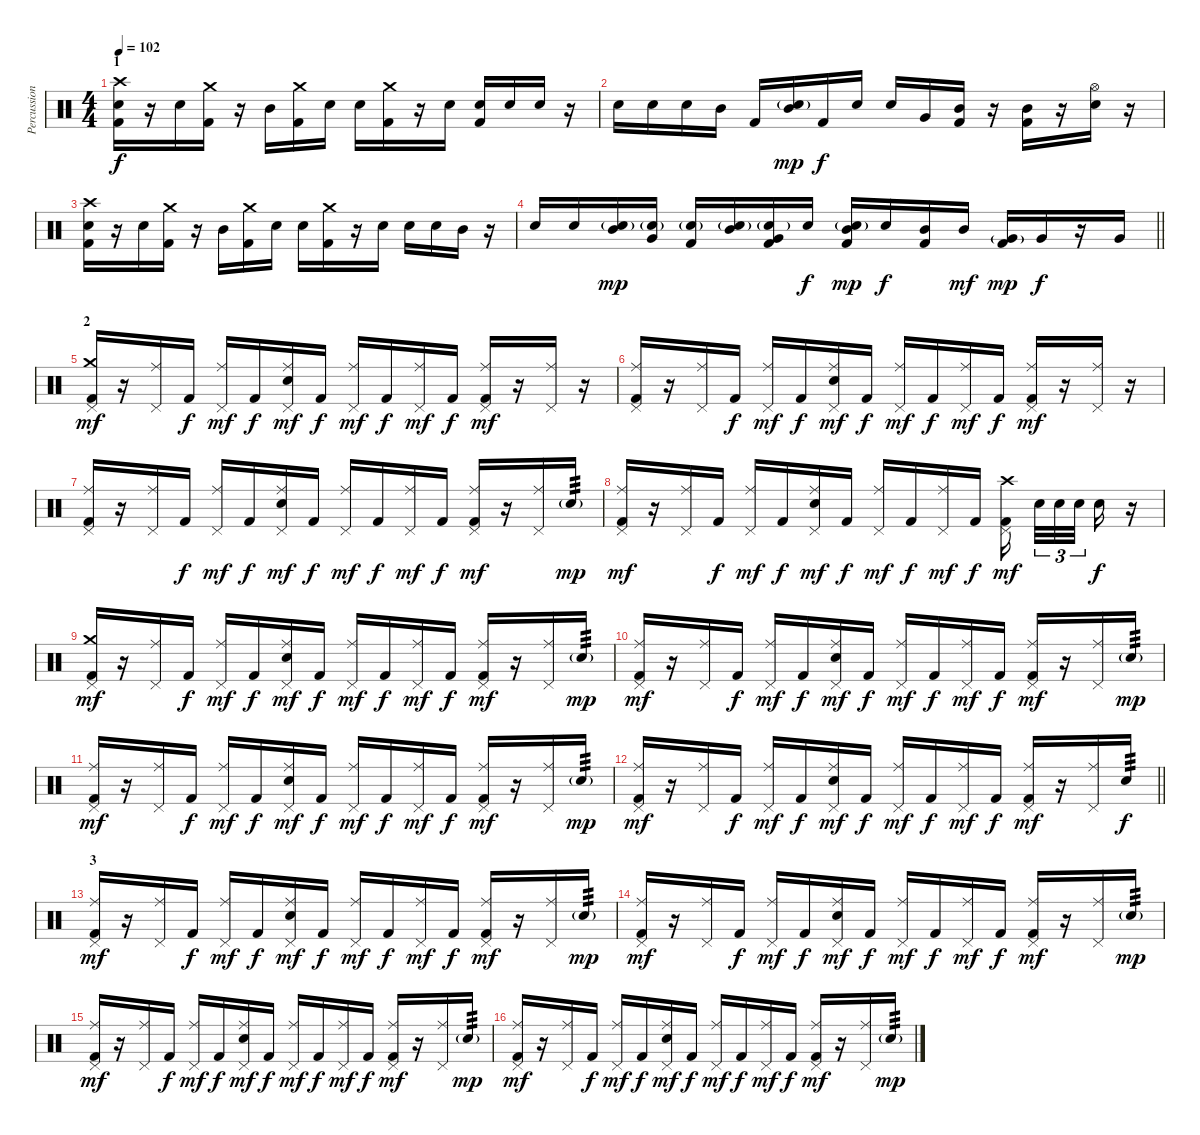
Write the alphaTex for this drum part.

\track ("Percussion" "Percussion") {instrument percussion}
\staff {score}
\articulation defaults
\ts (4 4)
\section ("" "1")
\tempo 102
\clef neutral
\ks c
("Crash high (hit)" "Snare (hit) 2" "Kick (hit) 2").16{dy f} r.16 "Snare (hit) 2".16 ("Crash medium (hit)" "Kick (hit) 2").16 r.16 "Mid Tom (hit)".16 ("Crash medium (hit)" "Kick (hit) 2").16 "Snare (hit) 2".16 "Snare (hit) 2".16 ("Crash medium (hit)" "Kick (hit) 2").16 r.16 "Snare (hit) 2".16 ("Snare (hit) 2" "Kick (hit) 2").16 "Snare (hit) 2".16 "Snare (hit) 2".16 r.16 |
"Snare (hit) 2".16 "Snare (hit) 2".16 "Snare (hit) 2".16 "Mid Tom (hit)".16 "Kick (hit) 2".16 ("Mid Tom (hit)" "Snare (hit) 2"{g}).16{dy mp} "Kick (hit) 2".16{dy f} "Snare (hit) 2".16 "Snare (hit) 2".16 "Very Low Tom (hit)".16 ("Mid Tom (hit)" "Kick (hit) 2").16 r.16 ("Mid Tom (hit)" "Kick (hit) 2").16 r.16 ("Hi-Hat (open)" "Snare (hit) 2").16 r.16 |
("Crash high (hit)" "Snare (hit) 2" "Kick (hit) 2").16 r.16 "Snare (hit) 2".16 ("Crash medium (hit)" "Kick (hit) 2").16 r.16 "Mid Tom (hit)".16 ("Crash medium (hit)" "Kick (hit) 2").16 "Snare (hit) 2".16 "Snare (hit) 2".16 ("Crash medium (hit)" "Kick (hit) 2").16 r.16 "Snare (hit) 2".16 "Snare (hit) 2".16 "Snare (hit) 2".16 "Mid Tom (hit)".16 r.16 |
\barLineRight lightlight "Snare (hit) 2".16 "Snare (hit) 2".16
("Mid Tom (hit)" "Snare (hit) 2"{g}).16{dy mp} ("Snare (hit) 2"{g} "Very Low Tom (hit)").16 ("Snare (hit) 2"{g} "Kick (hit) 2").16 ("Mid Tom (hit)" "Snare (hit) 2"{g}).16 ("Snare (hit) 2"{g} "Very Low Tom (hit)" "Kick (hit) 2").16 "Snare (hit) 2".16{dy f} ("Mid Tom (hit)" "Snare (hit) 2"{g} "Kick (hit) 2").16{dy mp} "Snare (hit) 2".16{dy f} ("Mid Tom (hit)" "Kick (hit) 2").16 "Mid Tom (hit)".16{dy mf} ("Very Low Tom (hit)"{g} "Kick (hit) 2").16{dy mp} "Very Low Tom (hit)".16{dy f} r.16 "Very Low Tom (hit)".16 |
\section ("" "2")
("Crash medium (hit)" "Pedal Hi-Hat (hit)" "Kick (hit) 2").16{dy mf} r.16 ("Ride (middle)" "Pedal Hi-Hat (hit)").16 "Kick (hit) 2".16{dy f} ("Ride (middle)" "Pedal Hi-Hat (hit)").16{dy mf} "Kick (hit) 2".16{dy f} ("Ride (middle)" "Pedal Hi-Hat (hit)" "Snare (hit) 2").16{dy mf} "Kick (hit) 2".16{dy f} ("Ride (middle)" "Pedal Hi-Hat (hit)").16{dy mf} "Kick (hit) 2".16{dy f} ("Ride (middle)" "Pedal Hi-Hat (hit)").16{dy mf} "Kick (hit) 2".16{dy f} ("Ride (middle)" "Pedal Hi-Hat (hit)" "Kick (hit) 2").16{dy mf} r.16 ("Ride (middle)" "Pedal Hi-Hat (hit)").16 r.16 |
("Ride (middle)" "Pedal Hi-Hat (hit)" "Kick (hit) 2").16 r.16 ("Ride (middle)" "Pedal Hi-Hat (hit)").16 "Kick (hit) 2".16{dy f} ("Ride (middle)" "Pedal Hi-Hat (hit)").16{dy mf} "Kick (hit) 2".16{dy f} ("Ride (middle)" "Pedal Hi-Hat (hit)" "Snare (hit) 2").16{dy mf} "Kick (hit) 2".16{dy f} ("Ride (middle)" "Pedal Hi-Hat (hit)").16{dy mf} "Kick (hit) 2".16{dy f} ("Ride (middle)" "Pedal Hi-Hat (hit)").16{dy mf} "Kick (hit) 2".16{dy f} ("Ride (middle)" "Pedal Hi-Hat (hit)" "Kick (hit) 2").16{dy mf} r.16 ("Ride (middle)" "Pedal Hi-Hat (hit)").16 r.16 |
("Ride (middle)" "Pedal Hi-Hat (hit)" "Kick (hit) 2").16 r.16 ("Ride (middle)" "Pedal Hi-Hat (hit)").16 "Kick (hit) 2".16{dy f} ("Ride (middle)" "Pedal Hi-Hat (hit)").16{dy mf} "Kick (hit) 2".16{dy f} ("Ride (middle)" "Pedal Hi-Hat (hit)" "Snare (hit) 2").16{dy mf} "Kick (hit) 2".16{dy f} ("Ride (middle)" "Pedal Hi-Hat (hit)").16{dy mf} "Kick (hit) 2".16{dy f} ("Ride (middle)" "Pedal Hi-Hat (hit)").16{dy mf} "Kick (hit) 2".16{dy f} ("Ride (middle)" "Pedal Hi-Hat (hit)" "Kick (hit) 2").16{dy mf} r.16 ("Ride (middle)" "Pedal Hi-Hat (hit)").16 "Snare (hit) 2"{g}.16{tp 3 dy mp} |
("Ride (middle)" "Pedal Hi-Hat (hit)" "Kick (hit) 2").16{dy mf} r.16 ("Ride (middle)" "Pedal Hi-Hat (hit)").16 "Kick (hit) 2".16{dy f} ("Ride (middle)" "Pedal Hi-Hat (hit)").16{dy mf} "Kick (hit) 2".16{dy f} ("Ride (middle)" "Pedal Hi-Hat (hit)" "Snare (hit) 2").16{dy mf} "Kick (hit) 2".16{dy f} ("Ride (middle)" "Pedal Hi-Hat (hit)").16{dy mf} "Kick (hit) 2".16{dy f} ("Ride (middle)" "Pedal Hi-Hat (hit)").16{dy mf} "Kick (hit) 2".16{dy f} ("Crash high (hit)" "Pedal Hi-Hat (hit)" "Kick (hit) 2").16{dy mf beam splitsecondary} "Snare (hit) 2".32{tu (3 2)} "Snare (hit) 2".32{tu (3 2)} "Snare (hit) 2".32{tu (3 2) beam splitsecondary} "Snare (hit) 2".16{dy f} r.16 |
("Crash medium (hit)" "Pedal Hi-Hat (hit)" "Kick (hit) 2").16{dy mf} r.16 ("Ride (middle)" "Pedal Hi-Hat (hit)").16 "Kick (hit) 2".16{dy f} ("Ride (middle)" "Pedal Hi-Hat (hit)").16{dy mf} "Kick (hit) 2".16{dy f} ("Ride (middle)" "Pedal Hi-Hat (hit)" "Snare (hit) 2").16{dy mf} "Kick (hit) 2".16{dy f} ("Ride (middle)" "Pedal Hi-Hat (hit)").16{dy mf} "Kick (hit) 2".16{dy f} ("Ride (middle)" "Pedal Hi-Hat (hit)").16{dy mf} "Kick (hit) 2".16{dy f} ("Ride (middle)" "Pedal Hi-Hat (hit)" "Kick (hit) 2").16{dy mf} r.16 ("Ride (middle)" "Pedal Hi-Hat (hit)").16 "Snare (hit) 2"{g}.16{tp 3 dy mp} |
("Ride (middle)" "Pedal Hi-Hat (hit)" "Kick (hit) 2").16{dy mf} r.16 ("Ride (middle)" "Pedal Hi-Hat (hit)").16 "Kick (hit) 2".16{dy f} ("Ride (middle)" "Pedal Hi-Hat (hit)").16{dy mf} "Kick (hit) 2".16{dy f} ("Ride (middle)" "Pedal Hi-Hat (hit)" "Snare (hit) 2").16{dy mf} "Kick (hit) 2".16{dy f} ("Ride (middle)" "Pedal Hi-Hat (hit)").16{dy mf} "Kick (hit) 2".16{dy f} ("Ride (middle)" "Pedal Hi-Hat (hit)").16{dy mf} "Kick (hit) 2".16{dy f} ("Ride (middle)" "Pedal Hi-Hat (hit)" "Kick (hit) 2").16{dy mf} r.16 ("Ride (middle)" "Pedal Hi-Hat (hit)").16 "Snare (hit) 2"{g}.16{tp 3 dy mp} |
("Ride (middle)" "Pedal Hi-Hat (hit)" "Kick (hit) 2").16{dy mf} r.16 ("Ride (middle)" "Pedal Hi-Hat (hit)").16 "Kick (hit) 2".16{dy f} ("Ride (middle)" "Pedal Hi-Hat (hit)").16{dy mf} "Kick (hit) 2".16{dy f} ("Ride (middle)" "Pedal Hi-Hat (hit)" "Snare (hit) 2").16{dy mf} "Kick (hit) 2".16{dy f} ("Ride (middle)" "Pedal Hi-Hat (hit)").16{dy mf} "Kick (hit) 2".16{dy f} ("Ride (middle)" "Pedal Hi-Hat (hit)").16{dy mf} "Kick (hit) 2".16{dy f} ("Ride (middle)" "Pedal Hi-Hat (hit)" "Kick (hit) 2").16{dy mf} r.16 ("Ride (middle)" "Pedal Hi-Hat (hit)").16 "Snare (hit) 2"{g}.16{tp 3 dy mp} |
\barLineRight lightlight
("Ride (middle)" "Pedal Hi-Hat (hit)" "Kick (hit) 2").16{dy mf} r.16 ("Ride (middle)" "Pedal Hi-Hat (hit)").16 "Kick (hit) 2".16{dy f} ("Ride (middle)" "Pedal Hi-Hat (hit)").16{dy mf} "Kick (hit) 2".16{dy f} ("Ride (middle)" "Pedal Hi-Hat (hit)" "Snare (hit) 2").16{dy mf} "Kick (hit) 2".16{dy f} ("Ride (middle)" "Pedal Hi-Hat (hit)").16{dy mf} "Kick (hit) 2".16{dy f} ("Ride (middle)" "Pedal Hi-Hat (hit)").16{dy mf} "Kick (hit) 2".16{dy f} ("Ride (middle)" "Pedal Hi-Hat (hit)" "Kick (hit) 2").16{dy mf} r.16 ("Ride (middle)" "Pedal Hi-Hat (hit)").16 "Snare (hit) 2".16{tp 3 dy f} |
\section ("" "3")
("Ride (middle)" "Pedal Hi-Hat (hit)" "Kick (hit) 2").16{dy mf} r.16 ("Ride (middle)" "Pedal Hi-Hat (hit)").16 "Kick (hit) 2".16{dy f} ("Ride (middle)" "Pedal Hi-Hat (hit)").16{dy mf} "Kick (hit) 2".16{dy f} ("Ride (middle)" "Pedal Hi-Hat (hit)" "Snare (hit) 2").16{dy mf} "Kick (hit) 2".16{dy f} ("Ride (middle)" "Pedal Hi-Hat (hit)").16{dy mf} "Kick (hit) 2".16{dy f} ("Ride (middle)" "Pedal Hi-Hat (hit)").16{dy mf} "Kick (hit) 2".16{dy f} ("Ride (middle)" "Pedal Hi-Hat (hit)" "Kick (hit) 2").16{dy mf} r.16 ("Ride (middle)" "Pedal Hi-Hat (hit)").16 "Snare (hit) 2"{g}.16{tp 3 dy mp} |
("Ride (middle)" "Pedal Hi-Hat (hit)" "Kick (hit) 2").16{dy mf} r.16 ("Ride (middle)" "Pedal Hi-Hat (hit)").16 "Kick (hit) 2".16{dy f} ("Ride (middle)" "Pedal Hi-Hat (hit)").16{dy mf} "Kick (hit) 2".16{dy f} ("Ride (middle)" "Pedal Hi-Hat (hit)" "Snare (hit) 2").16{dy mf} "Kick (hit) 2".16{dy f} ("Ride (middle)" "Pedal Hi-Hat (hit)").16{dy mf} "Kick (hit) 2".16{dy f} ("Ride (middle)" "Pedal Hi-Hat (hit)").16{dy mf} "Kick (hit) 2".16{dy f} ("Ride (middle)" "Pedal Hi-Hat (hit)" "Kick (hit) 2").16{dy mf} r.16 ("Ride (middle)" "Pedal Hi-Hat (hit)").16 "Snare (hit) 2"{g}.16{tp 3 dy mp} |
("Ride (middle)" "Pedal Hi-Hat (hit)" "Kick (hit) 2").16{dy mf} r.16 ("Ride (middle)" "Pedal Hi-Hat (hit)").16 "Kick (hit) 2".16{dy f} ("Ride (middle)" "Pedal Hi-Hat (hit)").16{dy mf} "Kick (hit) 2".16{dy f} ("Ride (middle)" "Pedal Hi-Hat (hit)" "Snare (hit) 2").16{dy mf} "Kick (hit) 2".16{dy f} ("Ride (middle)" "Pedal Hi-Hat (hit)").16{dy mf} "Kick (hit) 2".16{dy f} ("Ride (middle)" "Pedal Hi-Hat (hit)").16{dy mf} "Kick (hit) 2".16{dy f} ("Ride (middle)" "Pedal Hi-Hat (hit)" "Kick (hit) 2").16{dy mf} r.16 ("Ride (middle)" "Pedal Hi-Hat (hit)").16 "Snare (hit) 2"{g}.16{tp 3 dy mp} |
("Ride (middle)" "Pedal Hi-Hat (hit)" "Kick (hit) 2").16{dy mf} r.16 ("Ride (middle)" "Pedal Hi-Hat (hit)").16 "Kick (hit) 2".16{dy f} ("Ride (middle)" "Pedal Hi-Hat (hit)").16{dy mf} "Kick (hit) 2".16{dy f} ("Ride (middle)" "Pedal Hi-Hat (hit)" "Snare (hit) 2").16{dy mf} "Kick (hit) 2".16{dy f} ("Ride (middle)" "Pedal Hi-Hat (hit)").16{dy mf} "Kick (hit) 2".16{dy f} ("Ride (middle)" "Pedal Hi-Hat (hit)").16{dy mf} "Kick (hit) 2".16{dy f} ("Ride (middle)" "Pedal Hi-Hat (hit)" "Kick (hit) 2").16{dy mf} r.16 ("Ride (middle)" "Pedal Hi-Hat (hit)").16 "Snare (hit) 2"{g}.16{tp 3 dy mp}
